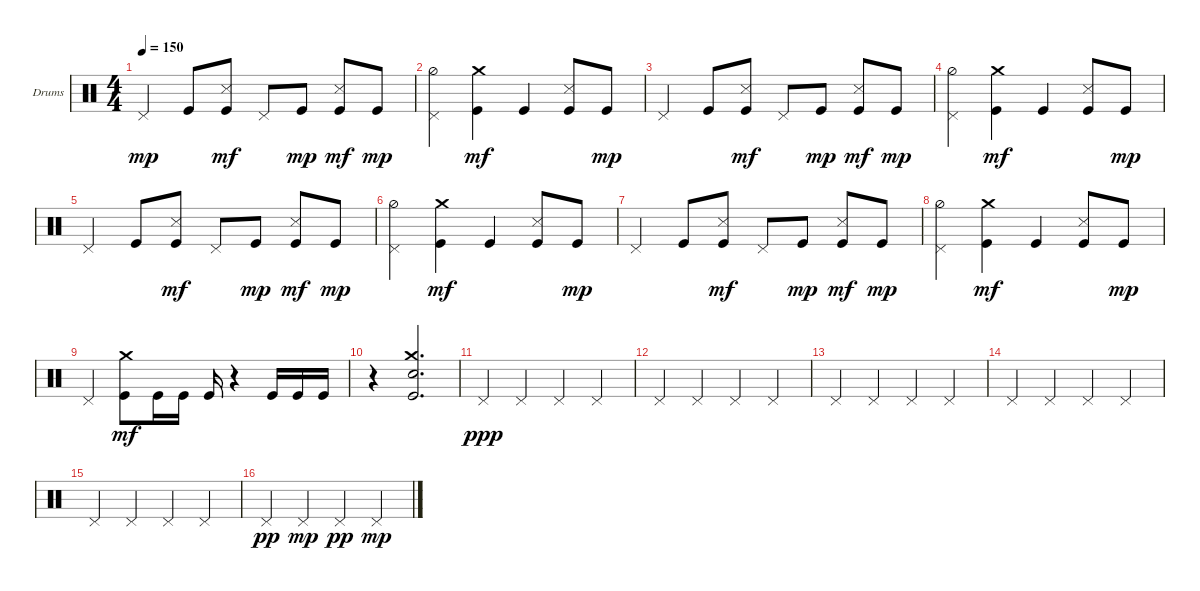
\defaultSystemsLayout 4
\bracketExtendMode groupsimilarinstruments
\firstSystemTrackNameOrientation horizontal
\otherSystemsTrackNameOrientation horizontal
\track ("Е. Кулаков" "Drums") {instrument percussion}
\staff {score}
\articulation defaults
\ts (4 4)
\tempo 150
\clef neutral
\ks c "Pedal Hi-Hat (hit)".4{dy mp} "Kick (hit)".8
("Kick (hit)" "Snare (side stick) 3").8{dy mf} "Pedal Hi-Hat (hit)".8 "Kick (hit)".8{dy mp} ("Kick (hit)" "Snare (side stick) 3").8{dy mf} "Kick (hit)".8{dy mp} |
("Pedal Hi-Hat (hit)" "Hi-Hat (half)").4 ("Kick (hit)" "Crash medium (hit)").4{dy mf} "Kick (hit)".4 ("Kick (hit)" "Snare (side stick) 3").8 "Kick (hit)".8{dy mp} |
"Pedal Hi-Hat (hit)".4 "Kick (hit)".8 ("Kick (hit)" "Snare (side stick) 3").8{dy mf} "Pedal Hi-Hat (hit)".8 "Kick (hit)".8{dy mp} ("Kick (hit)" "Snare (side stick) 3").8{dy mf} "Kick (hit)".8{dy mp} |
("Pedal Hi-Hat (hit)" "Hi-Hat (half)").4 ("Kick (hit)" "Crash medium (hit)").4{dy mf} "Kick (hit)".4 ("Kick (hit)" "Snare (side stick) 3").8 "Kick (hit)".8{dy mp} |
"Pedal Hi-Hat (hit)".4 "Kick (hit)".8 ("Kick (hit)" "Snare (side stick) 3").8{dy mf} "Pedal Hi-Hat (hit)".8 "Kick (hit)".8{dy mp} ("Kick (hit)" "Snare (side stick) 3").8{dy mf} "Kick (hit)".8{dy mp} |
("Pedal Hi-Hat (hit)" "Hi-Hat (half)").4 ("Kick (hit)" "Crash medium (hit)").4{dy mf} "Kick (hit)".4 ("Kick (hit)" "Snare (side stick) 3").8 "Kick (hit)".8{dy mp} |
"Pedal Hi-Hat (hit)".4 "Kick (hit)".8 ("Kick (hit)" "Snare (side stick) 3").8{dy mf} "Pedal Hi-Hat (hit)".8 "Kick (hit)".8{dy mp} ("Kick (hit)" "Snare (side stick) 3").8{dy mf} "Kick (hit)".8{dy mp} |
("Pedal Hi-Hat (hit)" "Hi-Hat (half)").4 ("Kick (hit)" "Crash medium (hit)").4{dy mf} "Kick (hit)".4 ("Kick (hit)" "Snare (side stick) 3").8 "Kick (hit)".8{dy mp} |
"Pedal Hi-Hat (hit)".4 ("Kick (hit)" "Crash medium (hit)").8{dy mf} "Kick (hit)".16 "Kick (hit)".16 "Kick (hit)".16 r.4 "Kick (hit)".16 "Kick (hit)".16 "Kick (hit)".16 |
r.4 ("Kick (hit)" "Snare (hit) 2" "Crash medium (hit)").2{d} |
"Pedal Hi-Hat (hit)".4{dy ppp} "Pedal Hi-Hat (hit)".4 "Pedal Hi-Hat (hit)".4 "Pedal Hi-Hat (hit)".4 |
"Pedal Hi-Hat (hit)".4 "Pedal Hi-Hat (hit)".4 "Pedal Hi-Hat (hit)".4 "Pedal Hi-Hat (hit)".4 |
"Pedal Hi-Hat (hit)".4 "Pedal Hi-Hat (hit)".4 "Pedal Hi-Hat (hit)".4 "Pedal Hi-Hat (hit)".4 |
"Pedal Hi-Hat (hit)".4 "Pedal Hi-Hat (hit)".4 "Pedal Hi-Hat (hit)".4 "Pedal Hi-Hat (hit)".4 |
"Pedal Hi-Hat (hit)".4 "Pedal Hi-Hat (hit)".4 "Pedal Hi-Hat (hit)".4 "Pedal Hi-Hat (hit)".4 |
"Pedal Hi-Hat (hit)".4{dy pp} "Pedal Hi-Hat (hit)".4{dy mp} "Pedal Hi-Hat (hit)".4{dy pp} "Pedal Hi-Hat (hit)".4{dy mp}
